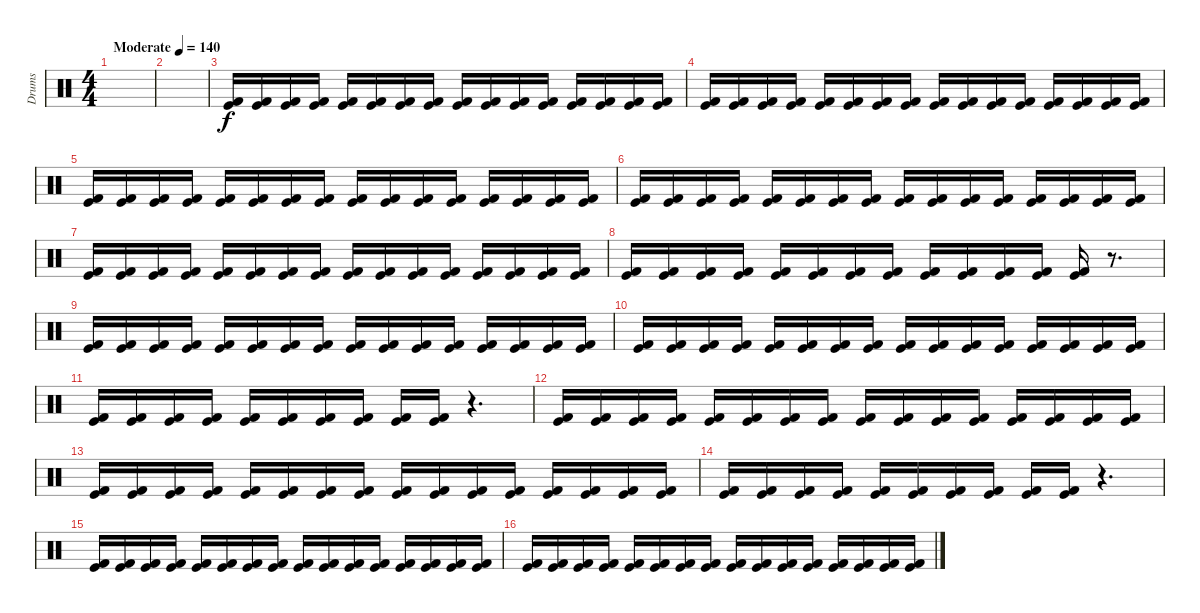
\track ("Drums" "Drums") {instrument percussion}
\staff {score}
\articulation defaults
\ts (4 4)
\tempo (140 "Moderate")
\clef neutral
\ks c
|
|
("Kick (hit) 2" "Kick (hit)").16 ("Kick (hit) 2" "Kick (hit)").16 ("Kick (hit) 2" "Kick (hit)").16 ("Kick (hit) 2" "Kick (hit)").16 ("Kick (hit) 2" "Kick (hit)").16 ("Kick (hit) 2" "Kick (hit)").16 ("Kick (hit) 2" "Kick (hit)").16 ("Kick (hit) 2" "Kick (hit)").16 ("Kick (hit) 2" "Kick (hit)").16 ("Kick (hit) 2" "Kick (hit)").16 ("Kick (hit) 2" "Kick (hit)").16 ("Kick (hit) 2" "Kick (hit)").16 ("Kick (hit) 2" "Kick (hit)").16 ("Kick (hit) 2" "Kick (hit)").16 ("Kick (hit) 2" "Kick (hit)").16 ("Kick (hit) 2" "Kick (hit)").16 |
("Kick (hit) 2" "Kick (hit)").16 ("Kick (hit) 2" "Kick (hit)").16 ("Kick (hit) 2" "Kick (hit)").16 ("Kick (hit) 2" "Kick (hit)").16 ("Kick (hit) 2" "Kick (hit)").16 ("Kick (hit) 2" "Kick (hit)").16 ("Kick (hit) 2" "Kick (hit)").16 ("Kick (hit) 2" "Kick (hit)").16 ("Kick (hit) 2" "Kick (hit)").16 ("Kick (hit) 2" "Kick (hit)").16 ("Kick (hit) 2" "Kick (hit)").16 ("Kick (hit) 2" "Kick (hit)").16 ("Kick (hit) 2" "Kick (hit)").16 ("Kick (hit) 2" "Kick (hit)").16 ("Kick (hit) 2" "Kick (hit)").16 ("Kick (hit) 2" "Kick (hit)").16 |
("Kick (hit) 2" "Kick (hit)").16 ("Kick (hit) 2" "Kick (hit)").16 ("Kick (hit) 2" "Kick (hit)").16 ("Kick (hit) 2" "Kick (hit)").16 ("Kick (hit) 2" "Kick (hit)").16 ("Kick (hit) 2" "Kick (hit)").16 ("Kick (hit) 2" "Kick (hit)").16 ("Kick (hit) 2" "Kick (hit)").16 ("Kick (hit) 2" "Kick (hit)").16 ("Kick (hit) 2" "Kick (hit)").16 ("Kick (hit) 2" "Kick (hit)").16 ("Kick (hit) 2" "Kick (hit)").16 ("Kick (hit) 2" "Kick (hit)").16 ("Kick (hit) 2" "Kick (hit)").16 ("Kick (hit) 2" "Kick (hit)").16 ("Kick (hit) 2" "Kick (hit)").16 |
("Kick (hit) 2" "Kick (hit)").16 ("Kick (hit) 2" "Kick (hit)").16 ("Kick (hit) 2" "Kick (hit)").16 ("Kick (hit) 2" "Kick (hit)").16 ("Kick (hit) 2" "Kick (hit)").16 ("Kick (hit) 2" "Kick (hit)").16 ("Kick (hit) 2" "Kick (hit)").16 ("Kick (hit) 2" "Kick (hit)").16 ("Kick (hit) 2" "Kick (hit)").16 ("Kick (hit) 2" "Kick (hit)").16 ("Kick (hit) 2" "Kick (hit)").16 ("Kick (hit) 2" "Kick (hit)").16 ("Kick (hit) 2" "Kick (hit)").16 ("Kick (hit) 2" "Kick (hit)").16 ("Kick (hit) 2" "Kick (hit)").16 ("Kick (hit) 2" "Kick (hit)").16 |
("Kick (hit) 2" "Kick (hit)").16 ("Kick (hit) 2" "Kick (hit)").16 ("Kick (hit) 2" "Kick (hit)").16 ("Kick (hit) 2" "Kick (hit)").16 ("Kick (hit) 2" "Kick (hit)").16 ("Kick (hit) 2" "Kick (hit)").16 ("Kick (hit) 2" "Kick (hit)").16 ("Kick (hit) 2" "Kick (hit)").16 ("Kick (hit) 2" "Kick (hit)").16 ("Kick (hit) 2" "Kick (hit)").16 ("Kick (hit) 2" "Kick (hit)").16 ("Kick (hit) 2" "Kick (hit)").16 ("Kick (hit) 2" "Kick (hit)").16 ("Kick (hit) 2" "Kick (hit)").16 ("Kick (hit) 2" "Kick (hit)").16 ("Kick (hit) 2" "Kick (hit)").16 |
("Kick (hit) 2" "Kick (hit)").16 ("Kick (hit) 2" "Kick (hit)").16 ("Kick (hit) 2" "Kick (hit)").16 ("Kick (hit) 2" "Kick (hit)").16 ("Kick (hit) 2" "Kick (hit)").16 ("Kick (hit) 2" "Kick (hit)").16 ("Kick (hit) 2" "Kick (hit)").16 ("Kick (hit) 2" "Kick (hit)").16 ("Kick (hit) 2" "Kick (hit)").16 ("Kick (hit) 2" "Kick (hit)").16 ("Kick (hit) 2" "Kick (hit)").16 ("Kick (hit) 2" "Kick (hit)").16 ("Kick (hit) 2" "Kick (hit)").16 r.8{d} |
("Kick (hit) 2" "Kick (hit)").16 ("Kick (hit) 2" "Kick (hit)").16 ("Kick (hit) 2" "Kick (hit)").16 ("Kick (hit) 2" "Kick (hit)").16 ("Kick (hit) 2" "Kick (hit)").16 ("Kick (hit) 2" "Kick (hit)").16 ("Kick (hit) 2" "Kick (hit)").16 ("Kick (hit) 2" "Kick (hit)").16 ("Kick (hit) 2" "Kick (hit)").16 ("Kick (hit) 2" "Kick (hit)").16 ("Kick (hit) 2" "Kick (hit)").16 ("Kick (hit) 2" "Kick (hit)").16 ("Kick (hit) 2" "Kick (hit)").16 ("Kick (hit) 2" "Kick (hit)").16 ("Kick (hit) 2" "Kick (hit)").16 ("Kick (hit) 2" "Kick (hit)").16 |
("Kick (hit) 2" "Kick (hit)").16 ("Kick (hit) 2" "Kick (hit)").16 ("Kick (hit) 2" "Kick (hit)").16 ("Kick (hit) 2" "Kick (hit)").16 ("Kick (hit) 2" "Kick (hit)").16 ("Kick (hit) 2" "Kick (hit)").16 ("Kick (hit) 2" "Kick (hit)").16 ("Kick (hit) 2" "Kick (hit)").16 ("Kick (hit) 2" "Kick (hit)").16 ("Kick (hit) 2" "Kick (hit)").16 ("Kick (hit) 2" "Kick (hit)").16 ("Kick (hit) 2" "Kick (hit)").16 ("Kick (hit) 2" "Kick (hit)").16 ("Kick (hit) 2" "Kick (hit)").16 ("Kick (hit) 2" "Kick (hit)").16 ("Kick (hit) 2" "Kick (hit)").16 |
("Kick (hit) 2" "Kick (hit)").16 ("Kick (hit) 2" "Kick (hit)").16 ("Kick (hit) 2" "Kick (hit)").16 ("Kick (hit) 2" "Kick (hit)").16 ("Kick (hit) 2" "Kick (hit)").16 ("Kick (hit) 2" "Kick (hit)").16 ("Kick (hit) 2" "Kick (hit)").16 ("Kick (hit) 2" "Kick (hit)").16 ("Kick (hit) 2" "Kick (hit)").16 ("Kick (hit) 2" "Kick (hit)").16 r.4{d} |
("Kick (hit) 2" "Kick (hit)").16 ("Kick (hit) 2" "Kick (hit)").16 ("Kick (hit) 2" "Kick (hit)").16 ("Kick (hit) 2" "Kick (hit)").16 ("Kick (hit) 2" "Kick (hit)").16 ("Kick (hit) 2" "Kick (hit)").16 ("Kick (hit) 2" "Kick (hit)").16 ("Kick (hit) 2" "Kick (hit)").16 ("Kick (hit) 2" "Kick (hit)").16 ("Kick (hit) 2" "Kick (hit)").16 ("Kick (hit) 2" "Kick (hit)").16 ("Kick (hit) 2" "Kick (hit)").16 ("Kick (hit) 2" "Kick (hit)").16 ("Kick (hit) 2" "Kick (hit)").16 ("Kick (hit) 2" "Kick (hit)").16 ("Kick (hit) 2" "Kick (hit)").16 |
("Kick (hit) 2" "Kick (hit)").16 ("Kick (hit) 2" "Kick (hit)").16 ("Kick (hit) 2" "Kick (hit)").16 ("Kick (hit) 2" "Kick (hit)").16 ("Kick (hit) 2" "Kick (hit)").16 ("Kick (hit) 2" "Kick (hit)").16 ("Kick (hit) 2" "Kick (hit)").16 ("Kick (hit) 2" "Kick (hit)").16 ("Kick (hit) 2" "Kick (hit)").16 ("Kick (hit) 2" "Kick (hit)").16 ("Kick (hit) 2" "Kick (hit)").16 ("Kick (hit) 2" "Kick (hit)").16 ("Kick (hit) 2" "Kick (hit)").16 ("Kick (hit) 2" "Kick (hit)").16 ("Kick (hit) 2" "Kick (hit)").16 ("Kick (hit) 2" "Kick (hit)").16 |
("Kick (hit) 2" "Kick (hit)").16 ("Kick (hit) 2" "Kick (hit)").16 ("Kick (hit) 2" "Kick (hit)").16 ("Kick (hit) 2" "Kick (hit)").16 ("Kick (hit) 2" "Kick (hit)").16 ("Kick (hit) 2" "Kick (hit)").16 ("Kick (hit) 2" "Kick (hit)").16 ("Kick (hit) 2" "Kick (hit)").16 ("Kick (hit) 2" "Kick (hit)").16 ("Kick (hit) 2" "Kick (hit)").16 r.4{d} |
("Kick (hit) 2" "Kick (hit)").16 ("Kick (hit) 2" "Kick (hit)").16 ("Kick (hit) 2" "Kick (hit)").16 ("Kick (hit) 2" "Kick (hit)").16 ("Kick (hit) 2" "Kick (hit)").16 ("Kick (hit) 2" "Kick (hit)").16 ("Kick (hit) 2" "Kick (hit)").16 ("Kick (hit) 2" "Kick (hit)").16 ("Kick (hit) 2" "Kick (hit)").16 ("Kick (hit) 2" "Kick (hit)").16 ("Kick (hit) 2" "Kick (hit)").16 ("Kick (hit) 2" "Kick (hit)").16 ("Kick (hit) 2" "Kick (hit)").16 ("Kick (hit) 2" "Kick (hit)").16 ("Kick (hit) 2" "Kick (hit)").16 ("Kick (hit) 2" "Kick (hit)").16 |
("Kick (hit) 2" "Kick (hit)").16 ("Kick (hit) 2" "Kick (hit)").16 ("Kick (hit) 2" "Kick (hit)").16 ("Kick (hit) 2" "Kick (hit)").16 ("Kick (hit) 2" "Kick (hit)").16 ("Kick (hit) 2" "Kick (hit)").16 ("Kick (hit) 2" "Kick (hit)").16 ("Kick (hit) 2" "Kick (hit)").16 ("Kick (hit) 2" "Kick (hit)").16 ("Kick (hit) 2" "Kick (hit)").16 ("Kick (hit) 2" "Kick (hit)").16 ("Kick (hit) 2" "Kick (hit)").16 ("Kick (hit) 2" "Kick (hit)").16 ("Kick (hit) 2" "Kick (hit)").16 ("Kick (hit) 2" "Kick (hit)").16 ("Kick (hit) 2" "Kick (hit)").16
